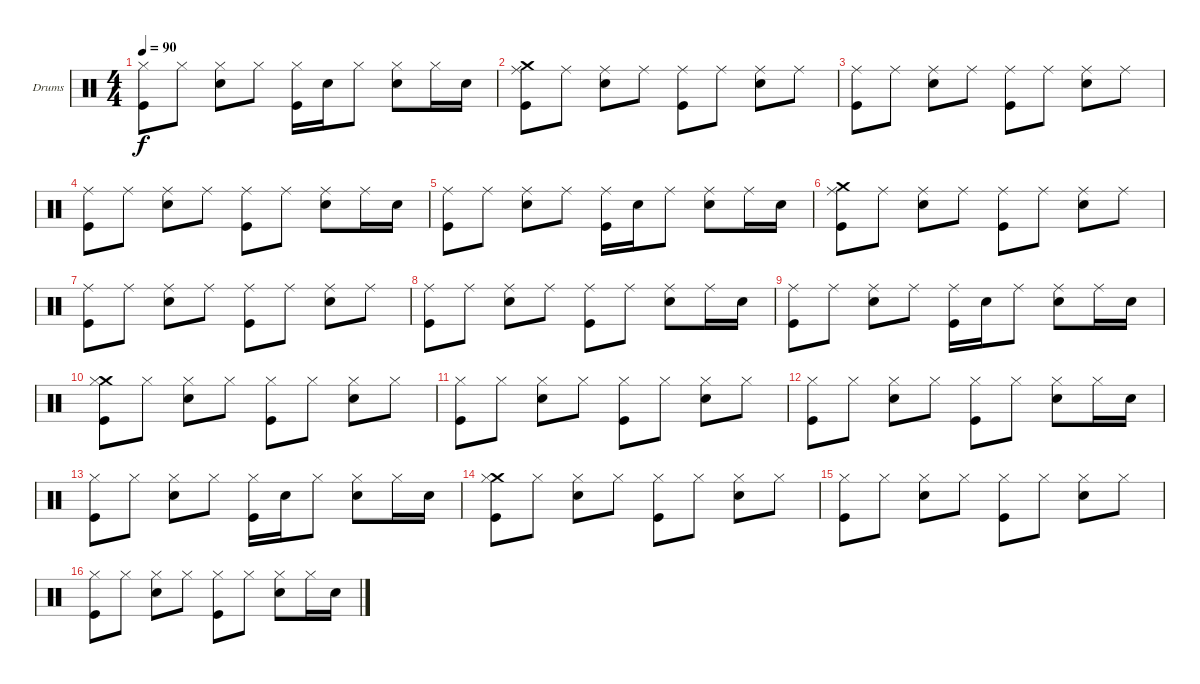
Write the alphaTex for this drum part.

\bracketExtendMode groupsimilarinstruments
\firstSystemTrackNameOrientation horizontal
\otherSystemsTrackNameOrientation horizontal
\track ("Drumkit" "Drums") {instrument percussion}
\staff {score}
\articulation defaults
\ts (4 4)
\tempo 90
\clef neutral
\ks c
("Hi-Hat (closed)" "Kick (hit)").8{dy f} "Hi-Hat (closed)".8 ("Hi-Hat (closed)" "Snare (hit) 2").8 "Hi-Hat (closed)".8 ("Hi-Hat (closed)" "Kick (hit)").16 "Snare (hit) 2".16 "Hi-Hat (closed)".8 ("Hi-Hat (closed)" "Snare (hit) 2").8 "Hi-Hat (closed)".16 "Snare (hit) 2".16 |
("Crash medium (hit)" "Ride (middle)" "Kick (hit)").8 "Ride (middle)".8 ("Ride (middle)" "Snare (hit) 2").8 "Ride (middle)".8 ("Ride (middle)" "Kick (hit)").8 "Ride (middle)".8 ("Ride (middle)" "Snare (hit) 2").8 "Ride (middle)".8 |
("Ride (middle)" "Kick (hit)").8 "Ride (middle)".8 ("Ride (middle)" "Snare (hit) 2").8 "Ride (middle)".8 ("Ride (middle)" "Kick (hit)").8 "Ride (middle)".8 ("Ride (middle)" "Snare (hit) 2").8 "Ride (middle)".8 |
("Ride (middle)" "Kick (hit)").8 "Ride (middle)".8 ("Ride (middle)" "Snare (hit) 2").8 "Ride (middle)".8 ("Ride (middle)" "Kick (hit)").8 "Ride (middle)".8 ("Ride (middle)" "Snare (hit) 2").8 "Ride (middle)".16 "Snare (hit) 2".16 |
("Ride (middle)" "Kick (hit)").8 "Ride (middle)".8 ("Ride (middle)" "Snare (hit) 2").8 "Ride (middle)".8 ("Ride (middle)" "Kick (hit)").16 "Snare (hit) 2".16 "Ride (middle)".8 ("Ride (middle)" "Snare (hit) 2").8 "Ride (middle)".16 "Snare (hit) 2".16 |
("Crash medium (hit)" "Ride (middle)" "Kick (hit)").8 "Ride (middle)".8 ("Ride (middle)" "Snare (hit) 2").8 "Ride (middle)".8 ("Ride (middle)" "Kick (hit)").8 "Ride (middle)".8 ("Ride (middle)" "Snare (hit) 2").8 "Ride (middle)".8 |
("Ride (middle)" "Kick (hit)").8 "Ride (middle)".8 ("Ride (middle)" "Snare (hit) 2").8 "Ride (middle)".8 ("Ride (middle)" "Kick (hit)").8 "Ride (middle)".8 ("Ride (middle)" "Snare (hit) 2").8 "Ride (middle)".8 |
("Ride (middle)" "Kick (hit)").8 "Ride (middle)".8 ("Ride (middle)" "Snare (hit) 2").8 "Ride (middle)".8 ("Ride (middle)" "Kick (hit)").8 "Ride (middle)".8 ("Ride (middle)" "Snare (hit) 2").8 "Ride (middle)".16 "Snare (hit) 2".16 |
("Ride (middle)" "Kick (hit)").8 "Ride (middle)".8 ("Ride (middle)" "Snare (hit) 2").8 "Ride (middle)".8 ("Ride (middle)" "Kick (hit)").16 "Snare (hit) 2".16 "Ride (middle)".8 ("Ride (middle)" "Snare (hit) 2").8 "Ride (middle)".16 "Snare (hit) 2".16 |
("Crash medium (hit)" "Hi-Hat (closed)" "Kick (hit)").8 "Hi-Hat (closed)".8 ("Hi-Hat (closed)" "Snare (hit) 2").8 "Hi-Hat (closed)".8 ("Hi-Hat (closed)" "Kick (hit)").8 "Hi-Hat (closed)".8 ("Hi-Hat (closed)" "Snare (hit) 2").8 "Hi-Hat (closed)".8 |
("Hi-Hat (closed)" "Kick (hit)").8 "Hi-Hat (closed)".8 ("Hi-Hat (closed)" "Snare (hit) 2").8 "Hi-Hat (closed)".8 ("Hi-Hat (closed)" "Kick (hit)").8 "Hi-Hat (closed)".8 ("Hi-Hat (closed)" "Snare (hit) 2").8 "Hi-Hat (closed)".8 |
("Hi-Hat (closed)" "Kick (hit)").8 "Hi-Hat (closed)".8 ("Hi-Hat (closed)" "Snare (hit) 2").8 "Hi-Hat (closed)".8 ("Hi-Hat (closed)" "Kick (hit)").8 "Hi-Hat (closed)".8 ("Hi-Hat (closed)" "Snare (hit) 2").8 "Hi-Hat (closed)".16 "Snare (hit) 2".16 |
("Hi-Hat (closed)" "Kick (hit)").8 "Hi-Hat (closed)".8 ("Hi-Hat (closed)" "Snare (hit) 2").8 "Hi-Hat (closed)".8 ("Hi-Hat (closed)" "Kick (hit)").16 "Snare (hit) 2".16 "Hi-Hat (closed)".8 ("Hi-Hat (closed)" "Snare (hit) 2").8 "Hi-Hat (closed)".16 "Snare (hit) 2".16 |
("Crash medium (hit)" "Hi-Hat (closed)" "Kick (hit)").8 "Hi-Hat (closed)".8 ("Hi-Hat (closed)" "Snare (hit) 2").8 "Hi-Hat (closed)".8 ("Hi-Hat (closed)" "Kick (hit)").8 "Hi-Hat (closed)".8 ("Hi-Hat (closed)" "Snare (hit) 2").8 "Hi-Hat (closed)".8 |
("Hi-Hat (closed)" "Kick (hit)").8 "Hi-Hat (closed)".8 ("Hi-Hat (closed)" "Snare (hit) 2").8 "Hi-Hat (closed)".8 ("Hi-Hat (closed)" "Kick (hit)").8 "Hi-Hat (closed)".8 ("Hi-Hat (closed)" "Snare (hit) 2").8 "Hi-Hat (closed)".8 |
("Hi-Hat (closed)" "Kick (hit)").8 "Hi-Hat (closed)".8 ("Hi-Hat (closed)" "Snare (hit) 2").8 "Hi-Hat (closed)".8 ("Hi-Hat (closed)" "Kick (hit)").8 "Hi-Hat (closed)".8 ("Hi-Hat (closed)" "Snare (hit) 2").8 "Hi-Hat (closed)".16 "Snare (hit) 2".16
